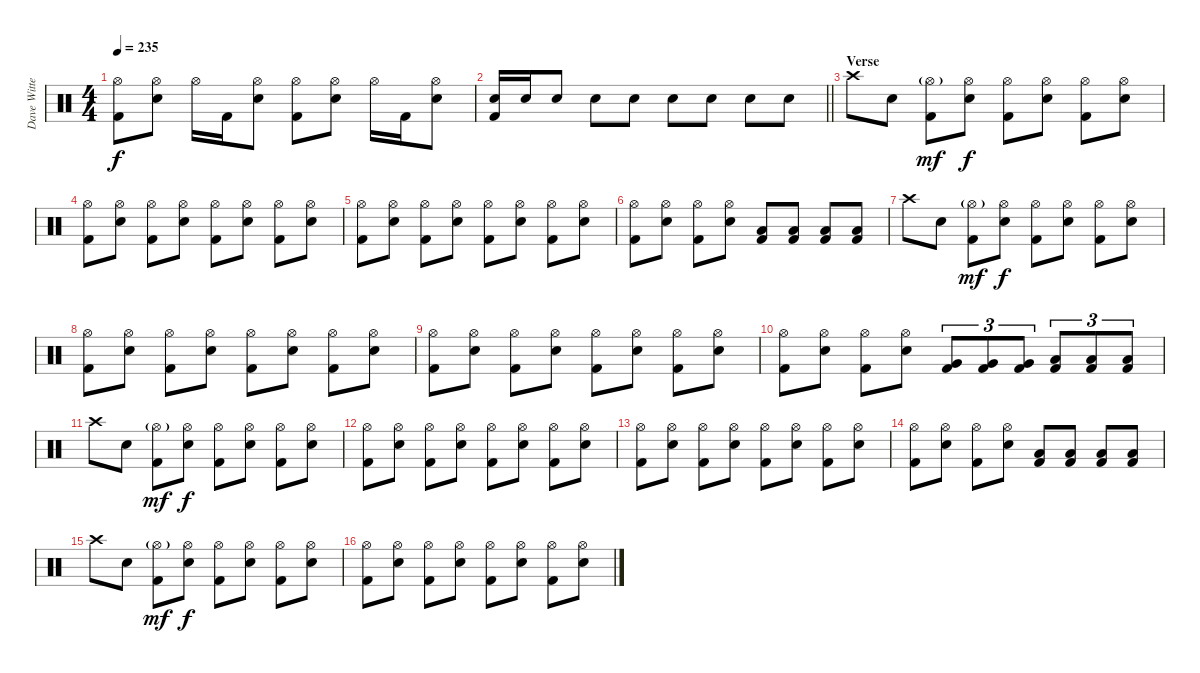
\track ("Dave Witte" "Dave Witte") {instrument percussion}
\staff {score}
\articulation defaults
\ts (4 4)
\tempo 235
\clef neutral
\ks c
("Hi-Hat (open)" "Kick (hit) 2").8{dy f} ("Hi-Hat (open)" "Electric Snare (hit)").8 "Hi-Hat (open)".16 "Kick (hit) 2".16 ("Hi-Hat (open)" "Electric Snare (hit)").8 ("Hi-Hat (open)" "Kick (hit) 2").8 ("Hi-Hat (open)" "Electric Snare (hit)").8 "Hi-Hat (open)".16 "Kick (hit) 2".16 ("Hi-Hat (open)" "Electric Snare (hit)").8 |
\barLineRight lightlight
("Electric Snare (hit)" "Kick (hit) 2").16 "Electric Snare (hit)".16 "Electric Snare (hit)".8 "Electric Snare (hit)".8 "Electric Snare (hit)".8 "Electric Snare (hit)".8 "Electric Snare (hit)".8 "Electric Snare (hit)".8 "Electric Snare (hit)".8 |
\section ("" "Verse")
"Crash high (hit)".8 "Electric Snare (hit)".8 ("Hi-Hat (open)"{g} "Kick (hit) 2").8{dy mf} ("Hi-Hat (open)" "Electric Snare (hit)").8{dy f} ("Hi-Hat (open)" "Kick (hit) 2").8 ("Hi-Hat (open)" "Electric Snare (hit)").8 ("Hi-Hat (open)" "Kick (hit) 2").8 ("Hi-Hat (open)" "Electric Snare (hit)").8 |
("Hi-Hat (open)" "Kick (hit) 2").8 ("Hi-Hat (open)" "Electric Snare (hit)").8 ("Hi-Hat (open)" "Kick (hit) 2").8 ("Hi-Hat (open)" "Electric Snare (hit)").8 ("Hi-Hat (open)" "Kick (hit) 2").8 ("Hi-Hat (open)" "Electric Snare (hit)").8 ("Hi-Hat (open)" "Kick (hit) 2").8 ("Hi-Hat (open)" "Electric Snare (hit)").8 |
("Hi-Hat (open)" "Kick (hit) 2").8 ("Hi-Hat (open)" "Electric Snare (hit)").8 ("Hi-Hat (open)" "Kick (hit) 2").8 ("Hi-Hat (open)" "Electric Snare (hit)").8 ("Hi-Hat (open)" "Kick (hit) 2").8 ("Hi-Hat (open)" "Electric Snare (hit)").8 ("Hi-Hat (open)" "Kick (hit) 2").8 ("Hi-Hat (open)" "Electric Snare (hit)").8 |
("Hi-Hat (open)" "Kick (hit) 2").8 ("Hi-Hat (open)" "Electric Snare (hit)").8 ("Hi-Hat (open)" "Kick (hit) 2").8 ("Hi-Hat (open)" "Electric Snare (hit)").8 ("Low Floor Tom (hit)" "Kick (hit) 2").8 ("Low Floor Tom (hit)" "Kick (hit) 2").8 ("Low Floor Tom (hit)" "Kick (hit) 2").8 ("Low Floor Tom (hit)" "Kick (hit) 2").8 |
"Crash high (hit)".8 "Electric Snare (hit)".8 ("Hi-Hat (open)"{g} "Kick (hit) 2").8{dy mf} ("Hi-Hat (open)" "Electric Snare (hit)").8{dy f} ("Hi-Hat (open)" "Kick (hit) 2").8 ("Hi-Hat (open)" "Electric Snare (hit)").8 ("Hi-Hat (open)" "Kick (hit) 2").8 ("Hi-Hat (open)" "Electric Snare (hit)").8 |
("Hi-Hat (open)" "Kick (hit) 2").8 ("Hi-Hat (open)" "Electric Snare (hit)").8 ("Hi-Hat (open)" "Kick (hit) 2").8 ("Hi-Hat (open)" "Electric Snare (hit)").8 ("Hi-Hat (open)" "Kick (hit) 2").8 ("Hi-Hat (open)" "Electric Snare (hit)").8 ("Hi-Hat (open)" "Kick (hit) 2").8 ("Hi-Hat (open)" "Electric Snare (hit)").8 |
("Hi-Hat (open)" "Kick (hit) 2").8 ("Hi-Hat (open)" "Electric Snare (hit)").8 ("Hi-Hat (open)" "Kick (hit) 2").8 ("Hi-Hat (open)" "Electric Snare (hit)").8 ("Hi-Hat (open)" "Kick (hit) 2").8 ("Hi-Hat (open)" "Electric Snare (hit)").8 ("Hi-Hat (open)" "Kick (hit) 2").8 ("Hi-Hat (open)" "Electric Snare (hit)").8 |
("Hi-Hat (open)" "Kick (hit) 2").8 ("Hi-Hat (open)" "Electric Snare (hit)").8 ("Hi-Hat (open)" "Kick (hit) 2").8 ("Hi-Hat (open)" "Electric Snare (hit)").8 ("Very Low Tom (hit)" "Kick (hit) 2").8{tu (3 2)} ("Very Low Tom (hit)" "Kick (hit) 2").8{tu (3 2)} ("Very Low Tom (hit)" "Kick (hit) 2").8{tu (3 2)} ("Low Floor Tom (hit)" "Kick (hit) 2").8{tu (3 2)} ("Low Floor Tom (hit)" "Kick (hit) 2").8{tu (3 2)} ("Low Floor Tom (hit)" "Kick (hit) 2").8{tu (3 2)} |
"Crash high (hit)".8 "Electric Snare (hit)".8 ("Hi-Hat (open)"{g} "Kick (hit) 2").8{dy mf} ("Hi-Hat (open)" "Electric Snare (hit)").8{dy f} ("Hi-Hat (open)" "Kick (hit) 2").8 ("Hi-Hat (open)" "Electric Snare (hit)").8 ("Hi-Hat (open)" "Kick (hit) 2").8 ("Hi-Hat (open)" "Electric Snare (hit)").8 |
("Hi-Hat (open)" "Kick (hit) 2").8 ("Hi-Hat (open)" "Electric Snare (hit)").8 ("Hi-Hat (open)" "Kick (hit) 2").8 ("Hi-Hat (open)" "Electric Snare (hit)").8 ("Hi-Hat (open)" "Kick (hit) 2").8 ("Hi-Hat (open)" "Electric Snare (hit)").8 ("Hi-Hat (open)" "Kick (hit) 2").8 ("Hi-Hat (open)" "Electric Snare (hit)").8 |
("Hi-Hat (open)" "Kick (hit) 2").8 ("Hi-Hat (open)" "Electric Snare (hit)").8 ("Hi-Hat (open)" "Kick (hit) 2").8 ("Hi-Hat (open)" "Electric Snare (hit)").8 ("Hi-Hat (open)" "Kick (hit) 2").8 ("Hi-Hat (open)" "Electric Snare (hit)").8 ("Hi-Hat (open)" "Kick (hit) 2").8 ("Hi-Hat (open)" "Electric Snare (hit)").8 |
("Hi-Hat (open)" "Kick (hit) 2").8 ("Hi-Hat (open)" "Electric Snare (hit)").8 ("Hi-Hat (open)" "Kick (hit) 2").8 ("Hi-Hat (open)" "Electric Snare (hit)").8 ("Low Floor Tom (hit)" "Kick (hit) 2").8 ("Low Floor Tom (hit)" "Kick (hit) 2").8 ("Low Floor Tom (hit)" "Kick (hit) 2").8 ("Low Floor Tom (hit)" "Kick (hit) 2").8 |
"Crash high (hit)".8 "Electric Snare (hit)".8 ("Hi-Hat (open)"{g} "Kick (hit) 2").8{dy mf} ("Hi-Hat (open)" "Electric Snare (hit)").8{dy f} ("Hi-Hat (open)" "Kick (hit) 2").8 ("Hi-Hat (open)" "Electric Snare (hit)").8 ("Hi-Hat (open)" "Kick (hit) 2").8 ("Hi-Hat (open)" "Electric Snare (hit)").8 |
("Hi-Hat (open)" "Kick (hit) 2").8 ("Hi-Hat (open)" "Electric Snare (hit)").8 ("Hi-Hat (open)" "Kick (hit) 2").8 ("Hi-Hat (open)" "Electric Snare (hit)").8 ("Hi-Hat (open)" "Kick (hit) 2").8 ("Hi-Hat (open)" "Electric Snare (hit)").8 ("Hi-Hat (open)" "Kick (hit) 2").8 ("Hi-Hat (open)" "Electric Snare (hit)").8
